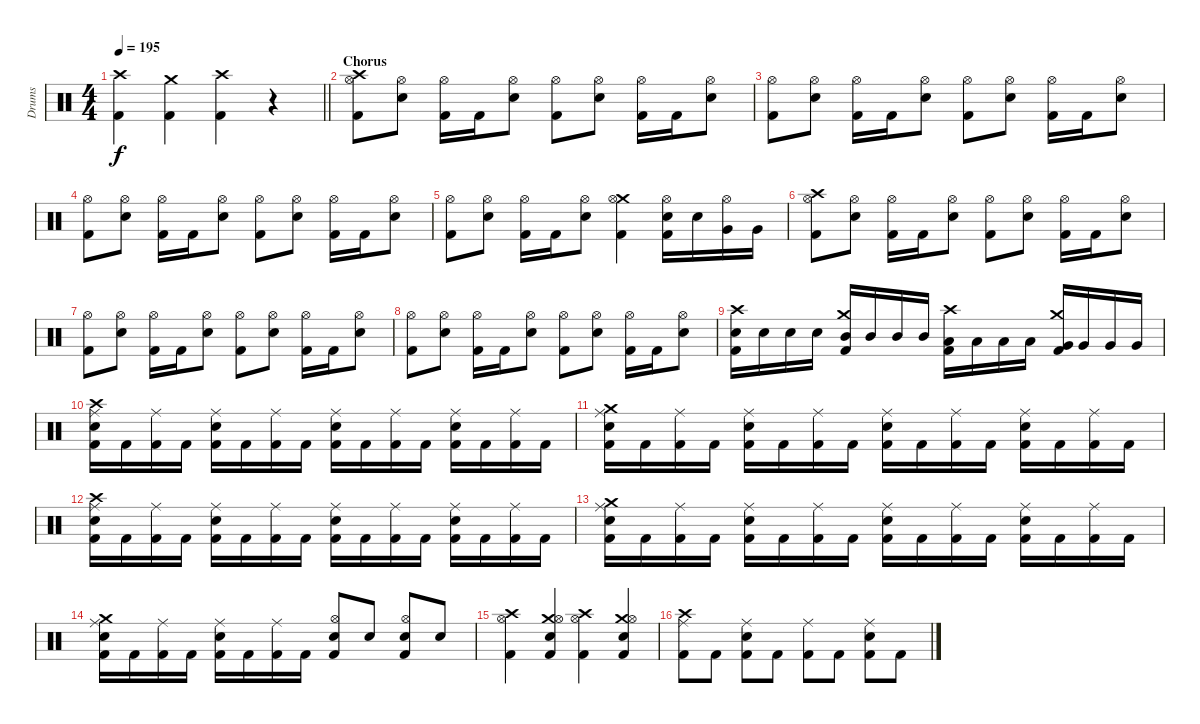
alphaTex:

\track ("Drums" "Drums") {instrument percussion}
\staff {score}
\articulation defaults
\ts (4 4)
\tempo 195
\clef neutral
\barLineRight lightlight
\ks c
("Crash high (hit)" "Kick (hit) 2").4{dy f} ("Crash medium (hit)" "Kick (hit) 2").4 ("Crash high (hit)" "Kick (hit) 2").4 r.4 |
\section ("" "Chorus")
("Crash high (hit)" "Hi-Hat (open)" "Kick (hit) 2").8 ("Hi-Hat (open)" "Snare (hit) 2").8 ("Hi-Hat (open)" "Kick (hit) 2").16 "Kick (hit) 2".16 ("Hi-Hat (open)" "Snare (hit) 2").8 ("Hi-Hat (open)" "Kick (hit) 2").8 ("Hi-Hat (open)" "Snare (hit) 2").8 ("Hi-Hat (open)" "Kick (hit) 2").16 "Kick (hit) 2".16 ("Hi-Hat (open)" "Snare (hit) 2").8 |
("Hi-Hat (open)" "Kick (hit) 2").8 ("Hi-Hat (open)" "Snare (hit) 2").8 ("Hi-Hat (open)" "Kick (hit) 2").16 "Kick (hit) 2".16 ("Hi-Hat (open)" "Snare (hit) 2").8 ("Hi-Hat (open)" "Kick (hit) 2").8 ("Hi-Hat (open)" "Snare (hit) 2").8 ("Hi-Hat (open)" "Kick (hit) 2").16 "Kick (hit) 2".16 ("Hi-Hat (open)" "Snare (hit) 2").8 |
("Hi-Hat (open)" "Kick (hit) 2").8 ("Hi-Hat (open)" "Snare (hit) 2").8 ("Hi-Hat (open)" "Kick (hit) 2").16 "Kick (hit) 2".16 ("Hi-Hat (open)" "Snare (hit) 2").8 ("Hi-Hat (open)" "Kick (hit) 2").8 ("Hi-Hat (open)" "Snare (hit) 2").8 ("Hi-Hat (open)" "Kick (hit) 2").16 "Kick (hit) 2".16 ("Hi-Hat (open)" "Snare (hit) 2").8 |
("Hi-Hat (open)" "Kick (hit) 2").8 ("Hi-Hat (open)" "Snare (hit) 2").8 ("Hi-Hat (open)" "Kick (hit) 2").16 "Kick (hit) 2".16 ("Hi-Hat (open)" "Snare (hit) 2").8 ("Crash medium (hit)" "Hi-Hat (open)" "Kick (hit) 2").4 ("Hi-Hat (open)" "Snare (hit) 2" "Kick (hit) 2").16 "Snare (hit) 2".16 ("Hi-Hat (open)" "Very Low Tom (hit)").16 "Very Low Tom (hit)".16 |
("Crash high (hit)" "Hi-Hat (open)" "Kick (hit) 2").8 ("Hi-Hat (open)" "Snare (hit) 2").8 ("Hi-Hat (open)" "Kick (hit) 2").16 "Kick (hit) 2".16 ("Hi-Hat (open)" "Snare (hit) 2").8 ("Hi-Hat (open)" "Kick (hit) 2").8 ("Hi-Hat (open)" "Snare (hit) 2").8 ("Hi-Hat (open)" "Kick (hit) 2").16 "Kick (hit) 2".16 ("Hi-Hat (open)" "Snare (hit) 2").8 |
("Hi-Hat (open)" "Kick (hit) 2").8 ("Hi-Hat (open)" "Snare (hit) 2").8 ("Hi-Hat (open)" "Kick (hit) 2").16 "Kick (hit) 2".16 ("Hi-Hat (open)" "Snare (hit) 2").8 ("Hi-Hat (open)" "Kick (hit) 2").8 ("Hi-Hat (open)" "Snare (hit) 2").8 ("Hi-Hat (open)" "Kick (hit) 2").16 "Kick (hit) 2".16 ("Hi-Hat (open)" "Snare (hit) 2").8 |
("Hi-Hat (open)" "Kick (hit) 2").8 ("Hi-Hat (open)" "Snare (hit) 2").8 ("Hi-Hat (open)" "Kick (hit) 2").16 "Kick (hit) 2".16 ("Hi-Hat (open)" "Snare (hit) 2").8 ("Hi-Hat (open)" "Kick (hit) 2").8 ("Hi-Hat (open)" "Snare (hit) 2").8 ("Hi-Hat (open)" "Kick (hit) 2").16 "Kick (hit) 2".16 ("Hi-Hat (open)" "Snare (hit) 2").8 |
("Crash high (hit)" "Snare (hit) 2" "Kick (hit) 2").16 "Snare (hit) 2".16 "Snare (hit) 2".16 "Snare (hit) 2".16 ("Crash medium (hit)" "Mid Tom (hit)" "Kick (hit) 2").16 "Mid Tom (hit)".16 "Mid Tom (hit)".16 "Mid Tom (hit)".16 ("Crash high (hit)" "Low Tom (hit)" "Kick (hit) 2").16 "Low Tom (hit)".16 "Low Tom (hit)".16 "Low Tom (hit)".16 ("Crash medium (hit)" "Very Low Tom (hit)" "Kick (hit) 2").16 "Very Low Tom (hit)".16 "Very Low Tom (hit)".16 "Very Low Tom (hit)".16 |
("Crash high (hit)" "Ride (middle)" "Snare (hit) 2" "Kick (hit) 2").16 "Kick (hit) 2".16 ("Ride (middle)" "Kick (hit) 2").16 "Kick (hit) 2".16 ("Ride (middle)" "Snare (hit) 2" "Kick (hit) 2").16 "Kick (hit) 2".16 ("Ride (middle)" "Kick (hit) 2").16 "Kick (hit) 2".16 ("Ride (middle)" "Snare (hit) 2" "Kick (hit) 2").16 "Kick (hit) 2".16 ("Ride (middle)" "Kick (hit) 2").16 "Kick (hit) 2".16 ("Ride (middle)" "Snare (hit) 2" "Kick (hit) 2").16 "Kick (hit) 2".16 ("Ride (middle)" "Kick (hit) 2").16 "Kick (hit) 2".16 |
("Crash medium (hit)" "Ride (middle)" "Snare (hit) 2" "Kick (hit) 2").16 "Kick (hit) 2".16 ("Ride (middle)" "Kick (hit) 2").16 "Kick (hit) 2".16 ("Ride (middle)" "Snare (hit) 2" "Kick (hit) 2").16 "Kick (hit) 2".16 ("Ride (middle)" "Kick (hit) 2").16 "Kick (hit) 2".16 ("Ride (middle)" "Snare (hit) 2" "Kick (hit) 2").16 "Kick (hit) 2".16 ("Ride (middle)" "Kick (hit) 2").16 "Kick (hit) 2".16 ("Ride (middle)" "Snare (hit) 2" "Kick (hit) 2").16 "Kick (hit) 2".16 ("Ride (middle)" "Kick (hit) 2").16 "Kick (hit) 2".16 |
("Crash high (hit)" "Ride (middle)" "Snare (hit) 2" "Kick (hit) 2").16 "Kick (hit) 2".16 ("Ride (middle)" "Kick (hit) 2").16 "Kick (hit) 2".16 ("Ride (middle)" "Snare (hit) 2" "Kick (hit) 2").16 "Kick (hit) 2".16 ("Ride (middle)" "Kick (hit) 2").16 "Kick (hit) 2".16 ("Ride (middle)" "Snare (hit) 2" "Kick (hit) 2").16 "Kick (hit) 2".16 ("Ride (middle)" "Kick (hit) 2").16 "Kick (hit) 2".16 ("Ride (middle)" "Snare (hit) 2" "Kick (hit) 2").16 "Kick (hit) 2".16 ("Ride (middle)" "Kick (hit) 2").16 "Kick (hit) 2".16 |
("Crash medium (hit)" "Ride (middle)" "Snare (hit) 2" "Kick (hit) 2").16 "Kick (hit) 2".16 ("Ride (middle)" "Kick (hit) 2").16 "Kick (hit) 2".16 ("Ride (middle)" "Snare (hit) 2" "Kick (hit) 2").16 "Kick (hit) 2".16 ("Ride (middle)" "Kick (hit) 2").16 "Kick (hit) 2".16 ("Ride (middle)" "Snare (hit) 2" "Kick (hit) 2").16 "Kick (hit) 2".16 ("Ride (middle)" "Kick (hit) 2").16 "Kick (hit) 2".16 ("Ride (middle)" "Snare (hit) 2" "Kick (hit) 2").16 "Kick (hit) 2".16 ("Ride (middle)" "Kick (hit) 2").16 "Kick (hit) 2".16 |
("Crash medium (hit)" "Ride (middle)" "Snare (hit) 2" "Kick (hit) 2").16 "Kick (hit) 2".16 ("Ride (middle)" "Kick (hit) 2").16 "Kick (hit) 2".16 ("Ride (middle)" "Snare (hit) 2" "Kick (hit) 2").16 "Kick (hit) 2".16 ("Ride (middle)" "Kick (hit) 2").16 "Kick (hit) 2".16 ("Hi-Hat (open)" "Snare (hit) 2" "Kick (hit) 2").8 "Snare (hit) 2".8 ("Hi-Hat (open)" "Snare (hit) 2" "Kick (hit) 2").8 "Snare (hit) 2".8 |
("Crash high (hit)" "Hi-Hat (open)" "Kick (hit) 2").4 ("Crash medium (hit)" "Hi-Hat (open)" "Snare (hit) 2" "Kick (hit) 2").4 ("Crash high (hit)" "Hi-Hat (open)" "Kick (hit) 2").4 ("Crash medium (hit)" "Hi-Hat (open)" "Snare (hit) 2" "Kick (hit) 2").4 |
("Crash high (hit)" "Ride (middle)" "Kick (hit) 2").8 "Kick (hit) 2".8 ("Ride (middle)" "Snare (hit) 2" "Kick (hit) 2").8 "Kick (hit) 2".8 ("Ride (middle)" "Kick (hit) 2").8 "Kick (hit) 2".8 ("Ride (middle)" "Snare (hit) 2" "Kick (hit) 2").8 "Kick (hit) 2".8
